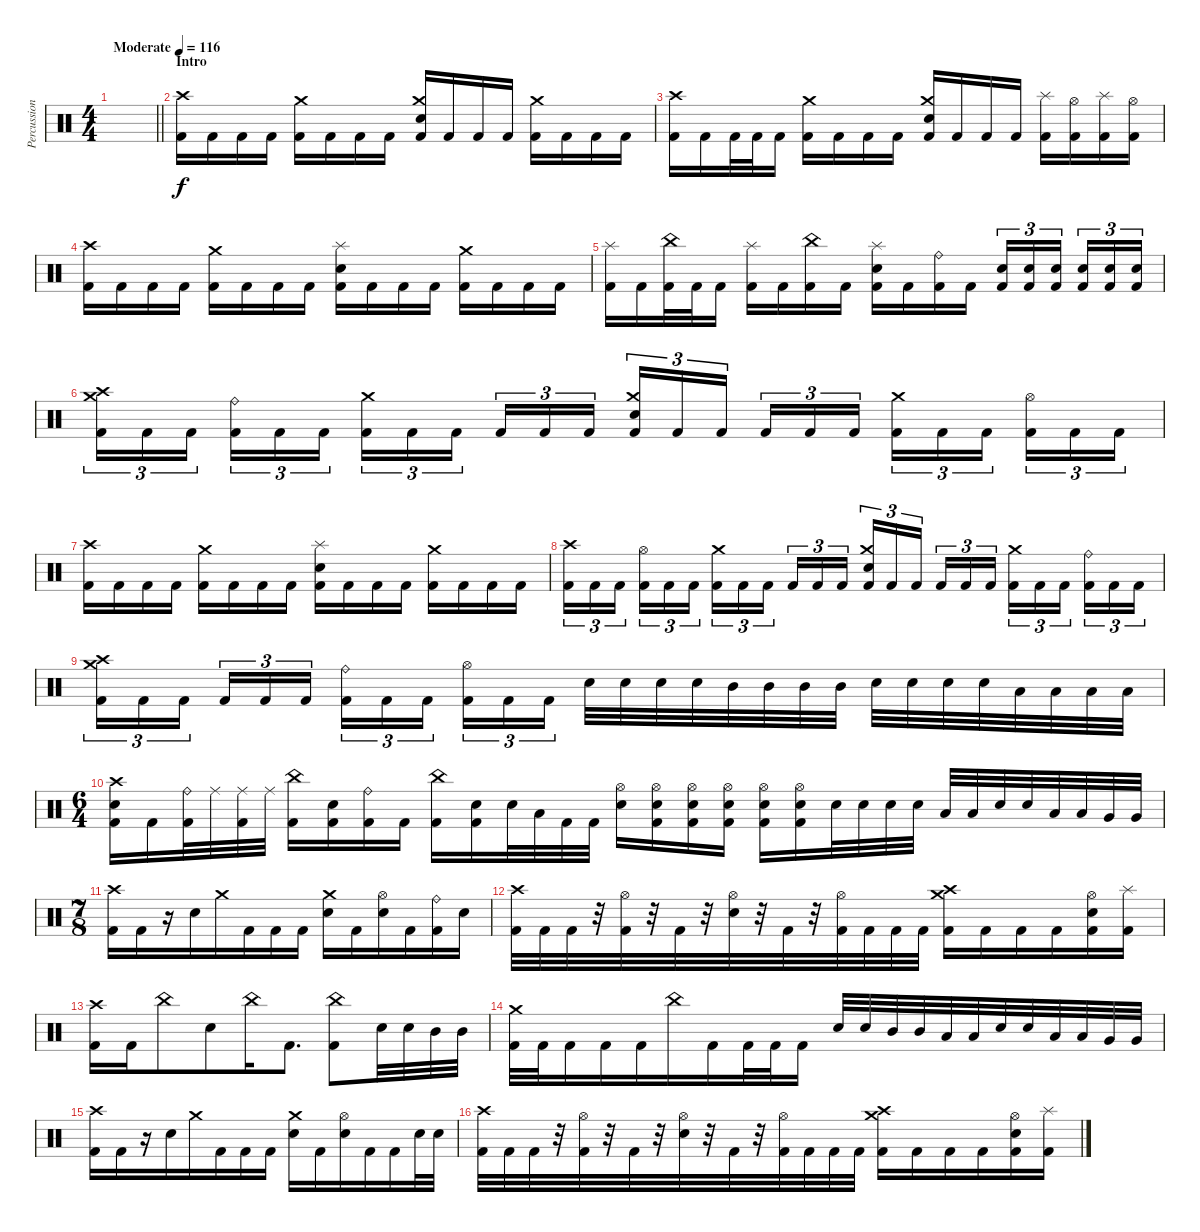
\track ("Percussion" "Percussion") {instrument percussion}
\staff {score}
\articulation defaults
\ts (4 4)
\tempo (116 "Moderate")
\clef neutral
\barLineRight lightlight
\ks c
|
\section ("" "Intro")
("Crash high (hit)" "Kick (hit) 2").16 "Kick (hit) 2".16 "Kick (hit) 2".16 "Kick (hit) 2".16 ("Crash medium (hit)" "Kick (hit) 2").16 "Kick (hit) 2".16 "Kick (hit) 2".16 "Kick (hit) 2".16 ("Crash medium (hit)" "Electric Snare (hit)" "Kick (hit) 2").16 "Kick (hit) 2".16 "Kick (hit) 2".16 "Kick (hit) 2".16 ("Crash medium (hit)" "Kick (hit) 2").16 "Kick (hit) 2".16 "Kick (hit) 2".16 "Kick (hit) 2".16 |
("Crash high (hit)" "Kick (hit) 2").16 "Kick (hit) 2".16 "Kick (hit) 2".32 "Kick (hit) 2".32 "Kick (hit) 2".16 ("Crash medium (hit)" "Kick (hit) 2").16 "Kick (hit) 2".16 "Kick (hit) 2".16 "Kick (hit) 2".16 ("Crash medium (hit)" "Electric Snare (hit)" "Kick (hit) 2").16 "Kick (hit) 2".16 "Kick (hit) 2".16 "Kick (hit) 2".16 ("Splash (hit)" "Kick (hit) 2").16 ("Hi-Hat (open)" "Kick (hit) 2").16 ("Splash (hit)" "Kick (hit) 2").16 ("Hi-Hat (open)" "Kick (hit) 2").16 |
("Crash high (hit)" "Kick (hit) 2").16 "Kick (hit) 2".16 "Kick (hit) 2".16 "Kick (hit) 2".16 ("Crash medium (hit)" "Kick (hit) 2").16 "Kick (hit) 2".16 "Kick (hit) 2".16 "Kick (hit) 2".16 ("Splash (hit)" "Electric Snare (hit)" "Kick (hit) 2").16 "Kick (hit) 2".16 "Kick (hit) 2".16 "Kick (hit) 2".16 ("Crash medium (hit)" "Kick (hit) 2").16 "Kick (hit) 2".16 "Kick (hit) 2".16 "Kick (hit) 2".16 |
("Splash (hit)" "Kick (hit) 2").16 "Kick (hit) 2".16 ("China (hit)" "Kick (hit) 2").32 "Kick (hit) 2".32 "Kick (hit) 2".16 ("Splash (hit)" "Kick (hit) 2").16 "Kick (hit) 2".16 ("China (hit)" "Kick (hit) 2").16 "Kick (hit) 2".16 ("Splash (hit)" "Electric Snare (hit)" "Kick (hit) 2").16 "Kick (hit) 2".16 ("Ride (bell)" "Kick (hit) 2").16 "Kick (hit) 2".16 ("Electric Snare (hit)" "Kick (hit) 2").16{tu (3 2)} ("Electric Snare (hit)" "Kick (hit) 2").16{tu (3 2)} ("Electric Snare (hit)" "Kick (hit) 2").16{tu (3 2) beam splitsecondary} ("Electric Snare (hit)" "Kick (hit) 2").16{tu (3 2)} ("Electric Snare (hit)" "Kick (hit) 2").16{tu (3 2)} ("Electric Snare (hit)" "Kick (hit) 2").16{tu (3 2)} |
("Crash high (hit)" "Crash medium (hit)" "Kick (hit) 2").16{tu (3 2)} "Kick (hit) 2".16{tu (3 2)} "Kick (hit) 2".16{tu (3 2) beam splitsecondary} ("Ride (bell)" "Kick (hit) 2").16{tu (3 2)} "Kick (hit) 2".16{tu (3 2)} "Kick (hit) 2".16{tu (3 2)} ("Crash medium (hit)" "Kick (hit) 2").16{tu (3 2)} "Kick (hit) 2".16{tu (3 2)} "Kick (hit) 2".16{tu (3 2) beam splitsecondary} "Kick (hit) 2".16{tu (3 2)} "Kick (hit) 2".16{tu (3 2)} "Kick (hit) 2".16{tu (3 2)} ("Crash medium (hit)" "Electric Snare (hit)" "Kick (hit) 2").16{tu (3 2)} "Kick (hit) 2".16{tu (3 2)} "Kick (hit) 2".16{tu (3 2) beam splitsecondary} "Kick (hit) 2".16{tu (3 2)} "Kick (hit) 2".16{tu (3 2)} "Kick (hit) 2".16{tu (3 2)} ("Crash medium (hit)" "Kick (hit) 2").16{tu (3 2)} "Kick (hit) 2".16{tu (3 2)} "Kick (hit) 2".16{tu (3 2) beam splitsecondary} ("Hi-Hat (open)" "Kick (hit) 2").16{tu (3 2)} "Kick (hit) 2".16{tu (3 2)} "Kick (hit) 2".16{tu (3 2)} |
("Crash high (hit)" "Kick (hit) 2").16 "Kick (hit) 2".16 "Kick (hit) 2".16 "Kick (hit) 2".16 ("Crash medium (hit)" "Kick (hit) 2").16 "Kick (hit) 2".16 "Kick (hit) 2".16 "Kick (hit) 2".16 ("Splash (hit)" "Electric Snare (hit)" "Kick (hit) 2").16 "Kick (hit) 2".16 "Kick (hit) 2".16 "Kick (hit) 2".16 ("Crash medium (hit)" "Kick (hit) 2").16 "Kick (hit) 2".16 "Kick (hit) 2".16 "Kick (hit) 2".16 |
("Crash high (hit)" "Kick (hit) 2").16{tu (3 2)} "Kick (hit) 2".16{tu (3 2)} "Kick (hit) 2".16{tu (3 2) beam splitsecondary} ("Hi-Hat (open)" "Kick (hit) 2").16{tu (3 2)} "Kick (hit) 2".16{tu (3 2)} "Kick (hit) 2".16{tu (3 2)} ("Crash medium (hit)" "Kick (hit) 2").16{tu (3 2)} "Kick (hit) 2".16{tu (3 2)} "Kick (hit) 2".16{tu (3 2) beam splitsecondary} "Kick (hit) 2".16{tu (3 2)} "Kick (hit) 2".16{tu (3 2)} "Kick (hit) 2".16{tu (3 2)} ("Crash medium (hit)" "Electric Snare (hit)" "Kick (hit) 2").16{tu (3 2)} "Kick (hit) 2".16{tu (3 2)} "Kick (hit) 2".16{tu (3 2) beam splitsecondary} "Kick (hit) 2".16{tu (3 2)} "Kick (hit) 2".16{tu (3 2)} "Kick (hit) 2".16{tu (3 2)} ("Crash medium (hit)" "Kick (hit) 2").16{tu (3 2)} "Kick (hit) 2".16{tu (3 2)} "Kick (hit) 2".16{tu (3 2) beam splitsecondary} ("Ride (bell)" "Kick (hit) 2").16{tu (3 2)} "Kick (hit) 2".16{tu (3 2)} "Kick (hit) 2".16{tu (3 2)} |
("Crash high (hit)" "Crash medium (hit)" "Kick (hit) 2").16{tu (3 2)} "Kick (hit) 2".16{tu (3 2)} "Kick (hit) 2".16{tu (3 2) beam splitsecondary} "Kick (hit) 2".16{tu (3 2)} "Kick (hit) 2".16{tu (3 2)} "Kick (hit) 2".16{tu (3 2)} ("Ride (bell)" "Kick (hit) 2").16{tu (3 2)} "Kick (hit) 2".16{tu (3 2)} "Kick (hit) 2".16{tu (3 2) beam splitsecondary} ("Hi-Hat (open)" "Kick (hit) 2").16{tu (3 2)} "Kick (hit) 2".16{tu (3 2)} "Kick (hit) 2".16{tu (3 2)} "Electric Snare (hit)".32 "Electric Snare (hit)".32 "Electric Snare (hit)".32 "Electric Snare (hit)".32 "Mid Tom (hit)".32 "Mid Tom (hit)".32 "Mid Tom (hit)".32 "Mid Tom (hit)".32 "Electric Snare (hit)".32 "Electric Snare (hit)".32 "Electric Snare (hit)".32 "Electric Snare (hit)".32 "Low Tom (hit)".32 "Low Tom (hit)".32 "Low Tom (hit)".32 "Low Tom (hit)".32 |
\ts (6 4)
("Crash high (hit)" "Electric Snare (hit)" "Kick (hit) 2").16 "Kick (hit) 2".16 ("Ride (bell)" "Kick (hit) 2").32 "Ride (middle)".32 ("Ride (middle)" "Kick (hit) 2").32 "Ride (middle)".32 ("China (hit)" "Kick (hit) 2").16 ("Electric Snare (hit)" "Kick (hit) 2").16 ("Ride (bell)" "Kick (hit) 2").16 "Kick (hit) 2".16 ("China (hit)" "Kick (hit) 2").16 ("Electric Snare (hit)" "Kick (hit) 2").16 "Electric Snare (hit)".32 "Low Tom (hit)".32 "Kick (hit) 2".32 "Kick (hit) 2".32 ("Hi-Hat (open)" "Electric Snare (hit)").16 ("Hi-Hat (open)" "Electric Snare (hit)" "Kick (hit) 2").16 ("Hi-Hat (open)" "Electric Snare (hit)" "Kick (hit) 2").16 ("Hi-Hat (open)" "Electric Snare (hit)" "Kick (hit) 2").16 ("Hi-Hat (open)" "Electric Snare (hit)" "Kick (hit) 2").16 ("Hi-Hat (open)" "Electric Snare (hit)" "Kick (hit) 2").16 "Electric Snare (hit)".32 "Electric Snare (hit)".32 "Electric Snare (hit)".32 "Electric Snare (hit)".32 "Low Tom (hit)".32 "Low Tom (hit)".32 "Electric Snare (hit)".32 "Electric Snare (hit)".32 "Low Tom (hit)".32 "Low Tom (hit)".32 "Very Low Tom (hit)".32 "Very Low Tom (hit)".32 |
\ts (7 8)
("Crash high (hit)" "Kick (hit) 2").16 "Kick (hit) 2".16 r.16 "Electric Snare (hit)".16 "Crash medium (hit)".16 "Kick (hit) 2".16 "Kick (hit) 2".16 "Kick (hit) 2".16 ("Crash medium (hit)" "Electric Snare (hit)").16 "Kick (hit) 2".16 ("Hi-Hat (open)" "Electric Snare (hit)").16 "Kick (hit) 2".16 ("Ride (bell)" "Kick (hit) 2").16 "Electric Snare (hit)".16 |
("Crash high (hit)" "Kick (hit) 2").32 "Kick (hit) 2".32 "Kick (hit) 2".32 r.32 ("Hi-Hat (open)" "Kick (hit) 2").32 r.32 "Kick (hit) 2".32 r.32 ("Hi-Hat (open)" "Electric Snare (hit)").32 r.32 "Kick (hit) 2".32 r.32 ("Hi-Hat (open)" "Kick (hit) 2").32 "Kick (hit) 2".32 "Kick (hit) 2".32 "Kick (hit) 2".32 ("Crash high (hit)" "Crash medium (hit)" "Kick (hit) 2").16 "Kick (hit) 2".16 "Kick (hit) 2".16 "Kick (hit) 2".16 ("Hi-Hat (open)" "Electric Snare (hit)" "Kick (hit) 2").16 ("Splash (hit)" "Kick (hit) 2").16 |
("Crash high (hit)" "Kick (hit) 2").16 "Kick (hit) 2".16 "China (hit)".8 "Electric Snare (hit)".8 "China (hit)".16 "Kick (hit) 2".8{d} ("China (hit)" "Kick (hit) 2").8 "Electric Snare (hit)".32 "Electric Snare (hit)".32 "Mid Tom (hit)".32 "Mid Tom (hit)".32 |
("Crash medium (hit)" "Kick (hit) 2").32 "Kick (hit) 2".32 "Kick (hit) 2".16 "Kick (hit) 2".16 "Kick (hit) 2".16 "China (hit)".16 "Kick (hit) 2".16 "Kick (hit) 2".32 "Kick (hit) 2".32 "Kick (hit) 2".16 "Electric Snare (hit)".32 "Electric Snare (hit)".32 "Mid Tom (hit)".32 "Mid Tom (hit)".32 "Low Tom (hit)".32 "Low Tom (hit)".32 "Electric Snare (hit)".32 "Electric Snare (hit)".32 "Low Tom (hit)".32 "Low Tom (hit)".32 "Very Low Tom (hit)".32 "Very Low Tom (hit)".32 |
("Crash high (hit)" "Kick (hit) 2").16 "Kick (hit) 2".16 r.16 "Electric Snare (hit)".16 "Crash medium (hit)".16 "Kick (hit) 2".16 "Kick (hit) 2".16 "Kick (hit) 2".16 ("Crash medium (hit)" "Electric Snare (hit)").16 "Kick (hit) 2".16 ("Hi-Hat (open)" "Electric Snare (hit)").16 "Kick (hit) 2".16 "Kick (hit) 2".16 "Electric Snare (hit)".32 "Electric Snare (hit)".32 |
("Crash high (hit)" "Kick (hit) 2").32 "Kick (hit) 2".32 "Kick (hit) 2".32 r.32 ("Hi-Hat (open)" "Kick (hit) 2").32 r.32 "Kick (hit) 2".32 r.32 ("Hi-Hat (open)" "Electric Snare (hit)").32 r.32 "Kick (hit) 2".32 r.32 ("Hi-Hat (open)" "Kick (hit) 2").32 "Kick (hit) 2".32 "Kick (hit) 2".32 "Kick (hit) 2".32 ("Crash high (hit)" "Crash medium (hit)" "Kick (hit) 2").16 "Kick (hit) 2".16 "Kick (hit) 2".16 "Kick (hit) 2".16 ("Hi-Hat (open)" "Electric Snare (hit)" "Kick (hit) 2").16 ("Splash (hit)" "Kick (hit) 2").16
